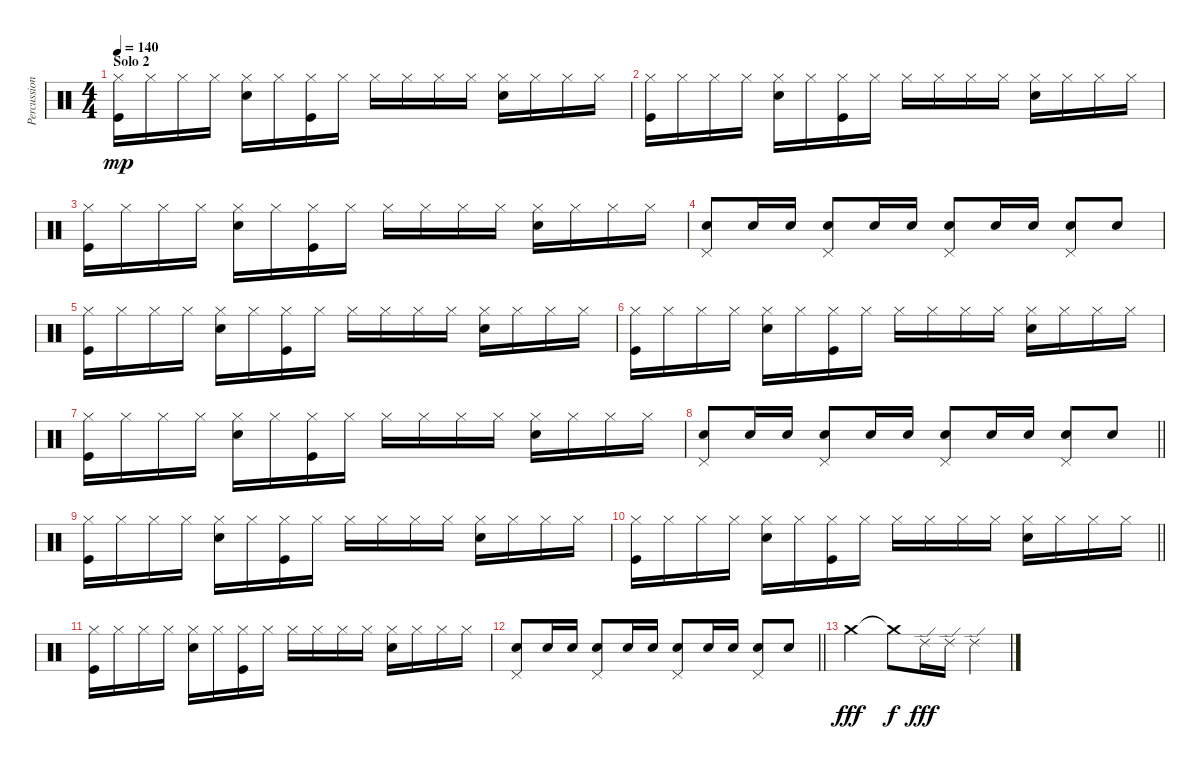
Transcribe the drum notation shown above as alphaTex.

\track ("Percussion" "Percussion") {instrument percussion}
\staff {score}
\articulation defaults
\ts (4 4)
\section ("" "Solo 2")
\tempo 140
\clef neutral
\ks c
("Hi-Hat (closed)" "Kick (hit)").16{dy mp} "Hi-Hat (closed)".16 "Hi-Hat (closed)".16 "Hi-Hat (closed)".16 ("Hi-Hat (closed)" "Snare (hit) 2").16 "Hi-Hat (closed)".16 ("Hi-Hat (closed)" "Kick (hit)").16 "Hi-Hat (closed)".16 "Hi-Hat (closed)".16 "Hi-Hat (closed)".16 "Hi-Hat (closed)".16 "Hi-Hat (closed)".16 ("Hi-Hat (closed)" "Snare (hit) 2").16 "Hi-Hat (closed)".16 "Hi-Hat (closed)".16 "Hi-Hat (closed)".16 |
("Hi-Hat (closed)" "Kick (hit)").16 "Hi-Hat (closed)".16 "Hi-Hat (closed)".16 "Hi-Hat (closed)".16 ("Hi-Hat (closed)" "Snare (hit) 2").16 "Hi-Hat (closed)".16 ("Hi-Hat (closed)" "Kick (hit)").16 "Hi-Hat (closed)".16 "Hi-Hat (closed)".16 "Hi-Hat (closed)".16 "Hi-Hat (closed)".16 "Hi-Hat (closed)".16 ("Hi-Hat (closed)" "Snare (hit) 2").16 "Hi-Hat (closed)".16 "Hi-Hat (closed)".16 "Hi-Hat (closed)".16 |
("Hi-Hat (closed)" "Kick (hit)").16 "Hi-Hat (closed)".16 "Hi-Hat (closed)".16 "Hi-Hat (closed)".16 ("Hi-Hat (closed)" "Snare (hit) 2").16 "Hi-Hat (closed)".16 ("Hi-Hat (closed)" "Kick (hit)").16 "Hi-Hat (closed)".16 "Hi-Hat (closed)".16 "Hi-Hat (closed)".16 "Hi-Hat (closed)".16 "Hi-Hat (closed)".16 ("Hi-Hat (closed)" "Snare (hit) 2").16 "Hi-Hat (closed)".16 "Hi-Hat (closed)".16 "Hi-Hat (closed)".16 |
("Pedal Hi-Hat (hit)" "Snare (hit) 2").8 "Snare (hit) 2".16 "Snare (hit) 2".16 ("Pedal Hi-Hat (hit)" "Snare (hit) 2").8 "Snare (hit) 2".16 "Snare (hit) 2".16 ("Pedal Hi-Hat (hit)" "Snare (hit) 2").8 "Snare (hit) 2".16 "Snare (hit) 2".16 ("Pedal Hi-Hat (hit)" "Snare (hit) 2").8 "Snare (hit) 2".8 |
("Hi-Hat (closed)" "Kick (hit)").16 "Hi-Hat (closed)".16 "Hi-Hat (closed)".16 "Hi-Hat (closed)".16 ("Hi-Hat (closed)" "Snare (hit) 2").16 "Hi-Hat (closed)".16 ("Hi-Hat (closed)" "Kick (hit)").16 "Hi-Hat (closed)".16 "Hi-Hat (closed)".16 "Hi-Hat (closed)".16 "Hi-Hat (closed)".16 "Hi-Hat (closed)".16 ("Hi-Hat (closed)" "Snare (hit) 2").16 "Hi-Hat (closed)".16 "Hi-Hat (closed)".16 "Hi-Hat (closed)".16 |
("Hi-Hat (closed)" "Kick (hit)").16 "Hi-Hat (closed)".16 "Hi-Hat (closed)".16 "Hi-Hat (closed)".16 ("Hi-Hat (closed)" "Snare (hit) 2").16 "Hi-Hat (closed)".16 ("Hi-Hat (closed)" "Kick (hit)").16 "Hi-Hat (closed)".16 "Hi-Hat (closed)".16 "Hi-Hat (closed)".16 "Hi-Hat (closed)".16 "Hi-Hat (closed)".16 ("Hi-Hat (closed)" "Snare (hit) 2").16 "Hi-Hat (closed)".16 "Hi-Hat (closed)".16 "Hi-Hat (closed)".16 |
("Hi-Hat (closed)" "Kick (hit)").16 "Hi-Hat (closed)".16 "Hi-Hat (closed)".16 "Hi-Hat (closed)".16 ("Hi-Hat (closed)" "Snare (hit) 2").16 "Hi-Hat (closed)".16 ("Hi-Hat (closed)" "Kick (hit)").16 "Hi-Hat (closed)".16 "Hi-Hat (closed)".16 "Hi-Hat (closed)".16 "Hi-Hat (closed)".16 "Hi-Hat (closed)".16 ("Hi-Hat (closed)" "Snare (hit) 2").16 "Hi-Hat (closed)".16 "Hi-Hat (closed)".16 "Hi-Hat (closed)".16 |
\barLineRight lightlight
("Pedal Hi-Hat (hit)" "Snare (hit) 2").8 "Snare (hit) 2".16 "Snare (hit) 2".16 ("Pedal Hi-Hat (hit)" "Snare (hit) 2").8 "Snare (hit) 2".16 "Snare (hit) 2".16 ("Pedal Hi-Hat (hit)" "Snare (hit) 2").8 "Snare (hit) 2".16 "Snare (hit) 2".16 ("Pedal Hi-Hat (hit)" "Snare (hit) 2").8 "Snare (hit) 2".8 |
("Hi-Hat (closed)" "Kick (hit)").16 "Hi-Hat (closed)".16 "Hi-Hat (closed)".16 "Hi-Hat (closed)".16 ("Hi-Hat (closed)" "Snare (hit) 2").16 "Hi-Hat (closed)".16 ("Hi-Hat (closed)" "Kick (hit)").16 "Hi-Hat (closed)".16 "Hi-Hat (closed)".16 "Hi-Hat (closed)".16 "Hi-Hat (closed)".16 "Hi-Hat (closed)".16 ("Hi-Hat (closed)" "Snare (hit) 2").16 "Hi-Hat (closed)".16 "Hi-Hat (closed)".16 "Hi-Hat (closed)".16 |
\barLineRight lightlight
("Hi-Hat (closed)" "Kick (hit)").16 "Hi-Hat (closed)".16 "Hi-Hat (closed)".16 "Hi-Hat (closed)".16 ("Hi-Hat (closed)" "Snare (hit) 2").16 "Hi-Hat (closed)".16 ("Hi-Hat (closed)" "Kick (hit)").16 "Hi-Hat (closed)".16 "Hi-Hat (closed)".16 "Hi-Hat (closed)".16 "Hi-Hat (closed)".16 "Hi-Hat (closed)".16 ("Hi-Hat (closed)" "Snare (hit) 2").16 "Hi-Hat (closed)".16 "Hi-Hat (closed)".16 "Hi-Hat (closed)".16 |
("Hi-Hat (closed)" "Kick (hit)").16 "Hi-Hat (closed)".16 "Hi-Hat (closed)".16 "Hi-Hat (closed)".16 ("Hi-Hat (closed)" "Snare (hit) 2").16 "Hi-Hat (closed)".16 ("Hi-Hat (closed)" "Kick (hit)").16 "Hi-Hat (closed)".16 "Hi-Hat (closed)".16 "Hi-Hat (closed)".16 "Hi-Hat (closed)".16 "Hi-Hat (closed)".16 ("Hi-Hat (closed)" "Snare (hit) 2").16 "Hi-Hat (closed)".16 "Hi-Hat (closed)".16 "Hi-Hat (closed)".16 |
\barLineRight lightlight
("Pedal Hi-Hat (hit)" "Snare (hit) 2").8 "Snare (hit) 2".16 "Snare (hit) 2".16 ("Pedal Hi-Hat (hit)" "Snare (hit) 2").8 "Snare (hit) 2".16 "Snare (hit) 2".16 ("Pedal Hi-Hat (hit)" "Snare (hit) 2").8 "Snare (hit) 2".16 "Snare (hit) 2".16 ("Pedal Hi-Hat (hit)" "Snare (hit) 2").8 "Snare (hit) 2".8 |
"Crash medium (hit)".2{dy fff} "Crash medium (hit)"{t}.8{dy f} "Ride (edge) 2".16{dy fff} "Ride (edge) 2".16 "Ride (edge) 2".4
